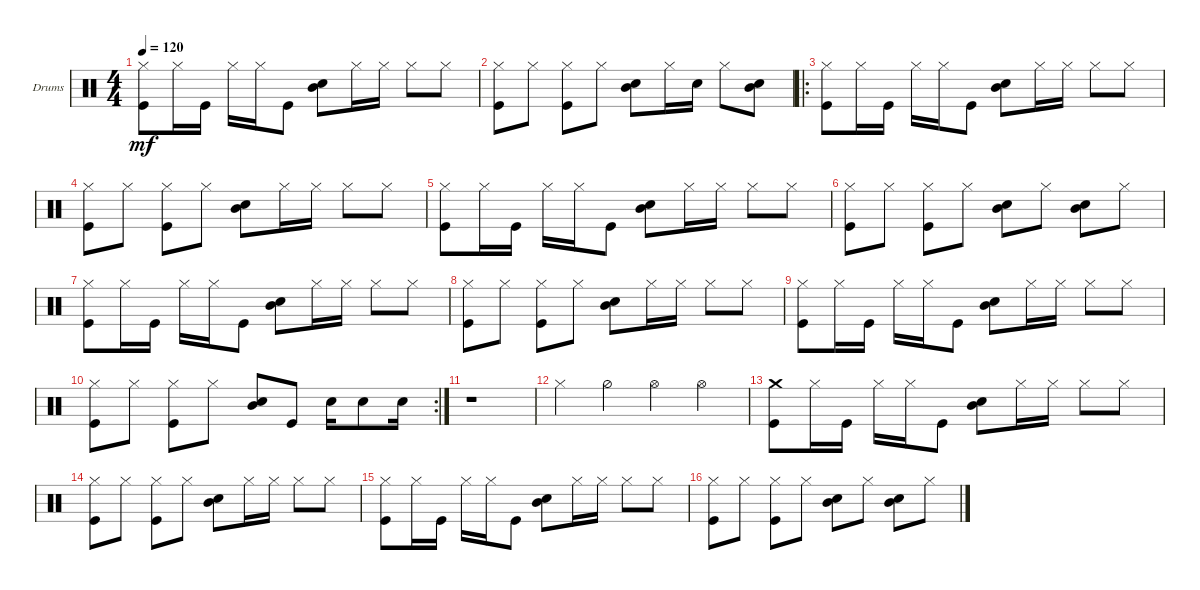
\defaultSystemsLayout 4
\bracketExtendMode groupsimilarinstruments
\firstSystemTrackNameOrientation horizontal
\otherSystemsTrackNameOrientation horizontal
\track ("Drumkit" "Drums") {instrument percussion}
\staff {score}
\articulation defaults
\ts (4 4)
\tempo 120
\clef neutral
\scale
0.567198
\ks c
("Kick (hit)" "Hi-Hat (closed)").8{dy mf} "Hi-Hat (closed)".16 "Kick (hit)".16 "Hi-Hat (closed)".16 "Hi-Hat (closed)".16 "Kick (hit)".8 ("Snare (hit) 2" "Mid Tom (hit)").8 "Hi-Hat (closed)".16 "Hi-Hat (closed)".16 "Hi-Hat (closed)".8 "Hi-Hat (closed)".8 |
\scale
0.483191 ("Kick (hit)" "Hi-Hat (closed)").8 "Hi-Hat (closed)".8 ("Kick (hit)" "Hi-Hat (closed)").8 "Hi-Hat (closed)".8 ("Snare (hit) 2" "Mid Tom (hit)").8 "Hi-Hat (closed)".16 "Snare (hit) 2".16 "Hi-Hat (closed)".8 ("Mid Tom (hit)" "Snare (hit) 2").8 |
\ro
\scale
0.371009 ("Kick (hit)" "Hi-Hat (closed)").8 "Hi-Hat (closed)".16 "Kick (hit)".16 "Hi-Hat (closed)".16 "Hi-Hat (closed)".16 "Kick (hit)".8 ("Snare (hit) 2" "Mid Tom (hit)").8 "Hi-Hat (closed)".16 "Hi-Hat (closed)".16 "Hi-Hat (closed)".8 "Hi-Hat (closed)".8 |
("Kick (hit)" "Hi-Hat (closed)").8 "Hi-Hat (closed)".8 ("Kick (hit)" "Hi-Hat (closed)").8 "Hi-Hat (closed)".8 ("Snare (hit) 2" "Mid Tom (hit)").8 "Hi-Hat (closed)".16 "Hi-Hat (closed)".16 "Hi-Hat (closed)".8 "Hi-Hat (closed)".8 |
("Kick (hit)" "Hi-Hat (closed)").8 "Hi-Hat (closed)".16 "Kick (hit)".16 "Hi-Hat (closed)".16 "Hi-Hat (closed)".16 "Kick (hit)".8 ("Snare (hit) 2" "Mid Tom (hit)").8 "Hi-Hat (closed)".16 "Hi-Hat (closed)".16 "Hi-Hat (closed)".8 "Hi-Hat (closed)".8 |
("Kick (hit)" "Hi-Hat (closed)").8 "Hi-Hat (closed)".8 ("Kick (hit)" "Hi-Hat (closed)").8 "Hi-Hat (closed)".8 ("Snare (hit) 2" "Mid Tom (hit)").8 "Hi-Hat (closed)".8 ("Snare (hit) 2" "Mid Tom (hit)").8 "Hi-Hat (closed)".8 |
("Kick (hit)" "Hi-Hat (closed)").8 "Hi-Hat (closed)".16 "Kick (hit)".16 "Hi-Hat (closed)".16 "Hi-Hat (closed)".16 "Kick (hit)".8 ("Snare (hit) 2" "Mid Tom (hit)").8 "Hi-Hat (closed)".16 "Hi-Hat (closed)".16 "Hi-Hat (closed)".8 "Hi-Hat (closed)".8 |
("Kick (hit)" "Hi-Hat (closed)").8 "Hi-Hat (closed)".8 ("Kick (hit)" "Hi-Hat (closed)").8 "Hi-Hat (closed)".8 ("Snare (hit) 2" "Mid Tom (hit)").8 "Hi-Hat (closed)".16 "Hi-Hat (closed)".16 "Hi-Hat (closed)".8 "Hi-Hat (closed)".8 |
("Kick (hit)" "Hi-Hat (closed)").8 "Hi-Hat (closed)".16 "Kick (hit)".16 "Hi-Hat (closed)".16 "Hi-Hat (closed)".16 "Kick (hit)".8 ("Snare (hit) 2" "Mid Tom (hit)").8 "Hi-Hat (closed)".16 "Hi-Hat (closed)".16 "Hi-Hat (closed)".8 "Hi-Hat (closed)".8 |
\rc 2
("Kick (hit)" "Hi-Hat (closed)").8 "Hi-Hat (closed)".8 ("Kick (hit)" "Hi-Hat (closed)").8 "Hi-Hat (closed)".8 ("Snare (hit) 2" "Mid Tom (hit)").8 "Kick (hit)".8 "Snare (hit) 2".16 "Snare (hit) 2".8 "Snare (hit) 2".16 |
r.1 |
"Hi-Hat (closed)".4 "Hi-Hat (half)".4 "Hi-Hat (open)".4 "Hi-Hat (open)".4 |
("Kick (hit)" "Crash medium (hit)").8 "Hi-Hat (closed)".16 "Kick (hit)".16 "Hi-Hat (closed)".16 "Hi-Hat (closed)".16 "Kick (hit)".8 ("Snare (hit) 2" "Mid Tom (hit)").8 "Hi-Hat (closed)".16 "Hi-Hat (closed)".16 "Hi-Hat (closed)".8 "Hi-Hat (closed)".8 |
("Kick (hit)" "Hi-Hat (closed)").8 "Hi-Hat (closed)".8 ("Kick (hit)" "Hi-Hat (closed)").8 "Hi-Hat (closed)".8 ("Snare (hit) 2" "Mid Tom (hit)").8 "Hi-Hat (closed)".16 "Hi-Hat (closed)".16 "Hi-Hat (closed)".8 "Hi-Hat (closed)".8 |
("Kick (hit)" "Hi-Hat (closed)").8 "Hi-Hat (closed)".16 "Kick (hit)".16 "Hi-Hat (closed)".16 "Hi-Hat (closed)".16 "Kick (hit)".8 ("Snare (hit) 2" "Mid Tom (hit)").8 "Hi-Hat (closed)".16 "Hi-Hat (closed)".16 "Hi-Hat (closed)".8 "Hi-Hat (closed)".8 |
("Kick (hit)" "Hi-Hat (closed)").8 "Hi-Hat (closed)".8 ("Kick (hit)" "Hi-Hat (closed)").8 "Hi-Hat (closed)".8 ("Snare (hit) 2" "Mid Tom (hit)").8 "Hi-Hat (closed)".8 ("Snare (hit) 2" "Mid Tom (hit)").8 "Hi-Hat (closed)".8
